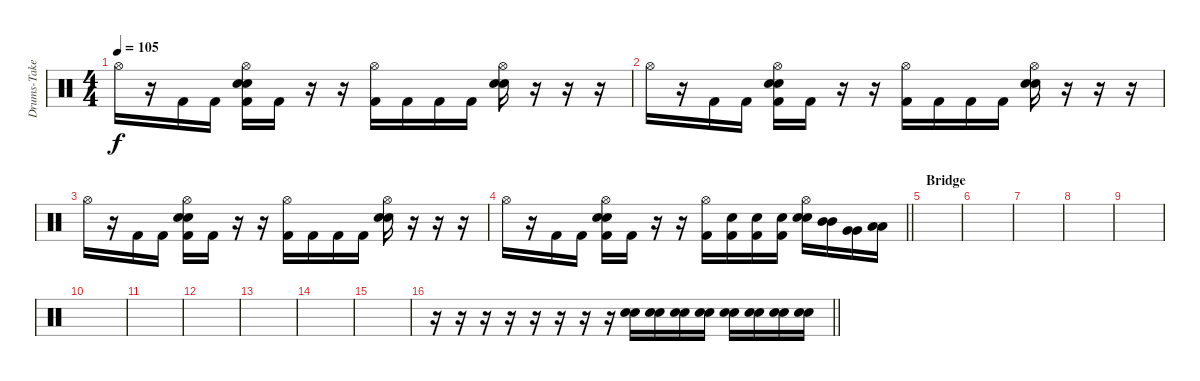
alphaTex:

\track ("Drums-Take the midi one!" "Drums-Take") {instrument percussion}
\staff {score}
\articulation defaults
\ts (4 4)
\tempo 105
\clef neutral
\ks c "Hi-Hat (open)".16{dy f}
r.16 "Kick (hit) 2".16 "Kick (hit) 2".16 ("Kick (hit) 2" "Hi-Hat (open)" "Snare (hit) 2" "Snare (hit) 2").16 "Kick (hit) 2".16 r.16 r.16 ("Kick (hit) 2" "Hi-Hat (open)").16 "Kick (hit) 2".16 "Kick (hit) 2".16 "Kick (hit) 2".16 ("Hi-Hat (open)" "Snare (hit) 2" "Snare (hit) 2").16 r.16 r.16 r.16 |
"Hi-Hat (open)".16 r.16 "Kick (hit) 2".16 "Kick (hit) 2".16 ("Kick (hit) 2" "Hi-Hat (open)" "Snare (hit) 2" "Snare (hit) 2").16 "Kick (hit) 2".16 r.16 r.16 ("Kick (hit) 2" "Hi-Hat (open)").16 "Kick (hit) 2".16 "Kick (hit) 2".16 "Kick (hit) 2".16 ("Hi-Hat (open)" "Snare (hit) 2" "Snare (hit) 2").16 r.16 r.16 r.16 |
"Hi-Hat (open)".16 r.16 "Kick (hit) 2".16 "Kick (hit) 2".16 ("Kick (hit) 2" "Hi-Hat (open)" "Snare (hit) 2" "Snare (hit) 2").16 "Kick (hit) 2".16 r.16 r.16 ("Kick (hit) 2" "Hi-Hat (open)").16 "Kick (hit) 2".16 "Kick (hit) 2".16 "Kick (hit) 2".16 ("Hi-Hat (open)" "Snare (hit) 2" "Snare (hit) 2").16 r.16 r.16 r.16 |
\barLineRight lightlight "Hi-Hat (open)".16
r.16 "Kick (hit) 2".16 "Kick (hit) 2".16 ("Kick (hit) 2" "Hi-Hat (open)" "Snare (hit) 2" "Snare (hit) 2").16 "Kick (hit) 2".16 r.16 r.16 ("Kick (hit) 2" "Hi-Hat (open)").16 ("Kick (hit) 2" "Snare (hit) 2").16 ("Kick (hit) 2" "Snare (hit) 2").16 ("Kick (hit) 2" "Snare (hit) 2").16 ("Hi-Hat (open)" "Snare (hit) 2" "Snare (hit) 2").16 ("Mid Tom (hit)" "Mid Tom (hit)").16 ("Very Low Tom (hit)" "Very Low Tom (hit)").16 ("Low Floor Tom (hit)" "Low Floor Tom (hit)").16 |
\section ("" "Bridge")
|
|
|
|
|
|
|
|
|
|
|
\barLineRight lightlight
r.16 r.16 r.16 r.16 r.16 r.16 r.16 r.16 ("Snare (hit) 2" "Snare (hit) 2").16 ("Snare (hit) 2" "Snare (hit) 2").16 ("Snare (hit) 2" "Snare (hit) 2").16 ("Snare (hit) 2" "Snare (hit) 2").16 ("Snare (hit) 2" "Snare (hit) 2").16 ("Snare (hit) 2" "Snare (hit) 2").16 ("Snare (hit) 2" "Snare (hit) 2").16 ("Snare (hit) 2" "Snare (hit) 2").16
